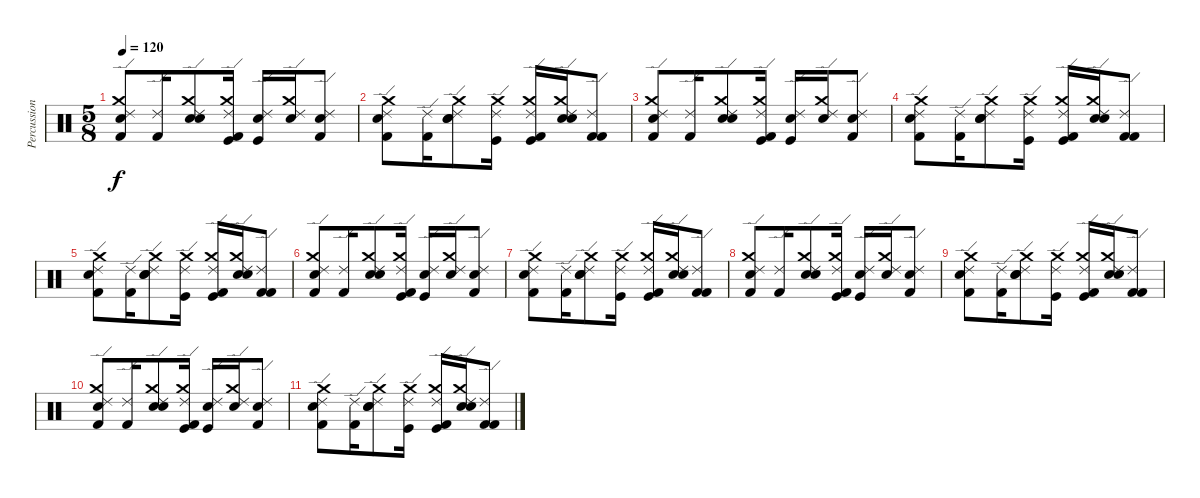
\track ("Percussion" "Percussion") {instrument percussion}
\staff {score}
\articulation defaults
\ts (5 8)
\tempo 120
\clef neutral
\ks c
("Electric Snare (hit)" "Kick (hit) 2" "Crash medium (hit)" "Ride (edge) 2").8{dy f} ("Kick (hit) 2" "Ride (edge) 2").16 ("Electric Snare (hit)" "Crash medium (hit)" "Electric Snare (hit)" "Ride (edge) 2").8 ("Crash medium (hit)" "Kick (hit) 2" "Kick (hit)" "Ride (edge) 2").16 ("Electric Snare (hit)" "Kick (hit)" "Ride (edge) 2").16 ("Crash medium (hit)" "Electric Snare (hit)" "Ride (edge) 2").16 ("Electric Snare (hit)" "Kick (hit) 2" "Ride (edge) 2").8 |
("Electric Snare (hit)" "Kick (hit) 2" "Crash medium (hit)" "Ride (edge) 2").8 ("Kick (hit) 2" "Ride (edge) 2").16 ("Electric Snare (hit)" "Crash medium (hit)" "Electric Snare (hit)" "Ride (edge) 2").8 ("Crash medium (hit)" "Kick (hit)" "Ride (edge) 2").16 ("Crash medium (hit)" "Kick (hit) 2" "Kick (hit)" "Ride (edge) 2").16 ("Electric Snare (hit)" "Crash medium (hit)" "Electric Snare (hit)" "Ride (edge) 2").16 ("Kick (hit) 2" "Kick (hit) 2" "Ride (edge) 2").8 |
("Electric Snare (hit)" "Kick (hit) 2" "Crash medium (hit)" "Ride (edge) 2").8 ("Kick (hit) 2" "Ride (edge) 2").16 ("Electric Snare (hit)" "Crash medium (hit)" "Electric Snare (hit)" "Ride (edge) 2").8 ("Crash medium (hit)" "Kick (hit) 2" "Kick (hit)" "Ride (edge) 2").16 ("Electric Snare (hit)" "Kick (hit)" "Ride (edge) 2").16 ("Crash medium (hit)" "Electric Snare (hit)" "Ride (edge) 2").16 ("Electric Snare (hit)" "Kick (hit) 2" "Ride (edge) 2").8 |
("Electric Snare (hit)" "Kick (hit) 2" "Crash medium (hit)" "Ride (edge) 2").8 ("Kick (hit) 2" "Ride (edge) 2").16 ("Electric Snare (hit)" "Crash medium (hit)" "Electric Snare (hit)" "Ride (edge) 2").8 ("Crash medium (hit)" "Kick (hit)" "Ride (edge) 2").16 ("Crash medium (hit)" "Kick (hit) 2" "Kick (hit)" "Ride (edge) 2").16 ("Electric Snare (hit)" "Crash medium (hit)" "Electric Snare (hit)" "Ride (edge) 2").16 ("Kick (hit) 2" "Kick (hit) 2" "Ride (edge) 2").8 |
("Electric Snare (hit)" "Kick (hit) 2" "Crash medium (hit)" "Ride (edge) 2").8 ("Kick (hit) 2" "Ride (edge) 2").16 ("Electric Snare (hit)" "Crash medium (hit)" "Electric Snare (hit)" "Ride (edge) 2").8 ("Crash medium (hit)" "Kick (hit)" "Ride (edge) 2").16 ("Crash medium (hit)" "Kick (hit) 2" "Kick (hit)" "Ride (edge) 2").16 ("Electric Snare (hit)" "Crash medium (hit)" "Electric Snare (hit)" "Ride (edge) 2").16 ("Kick (hit) 2" "Kick (hit) 2" "Ride (edge) 2").8 |
("Electric Snare (hit)" "Kick (hit) 2" "Crash medium (hit)" "Ride (edge) 2").8 ("Kick (hit) 2" "Ride (edge) 2").16 ("Electric Snare (hit)" "Crash medium (hit)" "Electric Snare (hit)" "Ride (edge) 2").8 ("Crash medium (hit)" "Kick (hit) 2" "Kick (hit)" "Ride (edge) 2").16 ("Electric Snare (hit)" "Kick (hit)" "Ride (edge) 2").16 ("Crash medium (hit)" "Electric Snare (hit)" "Ride (edge) 2").16 ("Electric Snare (hit)" "Kick (hit) 2" "Ride (edge) 2").8 |
("Electric Snare (hit)" "Kick (hit) 2" "Crash medium (hit)" "Ride (edge) 2").8 ("Kick (hit) 2" "Ride (edge) 2").16 ("Electric Snare (hit)" "Crash medium (hit)" "Electric Snare (hit)" "Ride (edge) 2").8 ("Crash medium (hit)" "Kick (hit)" "Ride (edge) 2").16 ("Crash medium (hit)" "Kick (hit) 2" "Kick (hit)" "Ride (edge) 2").16 ("Electric Snare (hit)" "Crash medium (hit)" "Electric Snare (hit)" "Ride (edge) 2").16 ("Kick (hit) 2" "Kick (hit) 2" "Ride (edge) 2").8 |
("Electric Snare (hit)" "Kick (hit) 2" "Crash medium (hit)" "Ride (edge) 2").8 ("Kick (hit) 2" "Ride (edge) 2").16 ("Electric Snare (hit)" "Crash medium (hit)" "Electric Snare (hit)" "Ride (edge) 2").8 ("Crash medium (hit)" "Kick (hit) 2" "Kick (hit)" "Ride (edge) 2").16 ("Electric Snare (hit)" "Kick (hit)" "Ride (edge) 2").16 ("Crash medium (hit)" "Electric Snare (hit)" "Ride (edge) 2").16 ("Electric Snare (hit)" "Kick (hit) 2" "Ride (edge) 2").8 |
("Electric Snare (hit)" "Kick (hit) 2" "Crash medium (hit)" "Ride (edge) 2").8 ("Kick (hit) 2" "Ride (edge) 2").16 ("Electric Snare (hit)" "Crash medium (hit)" "Electric Snare (hit)" "Ride (edge) 2").8 ("Crash medium (hit)" "Kick (hit)" "Ride (edge) 2").16 ("Crash medium (hit)" "Kick (hit) 2" "Kick (hit)" "Ride (edge) 2").16 ("Electric Snare (hit)" "Crash medium (hit)" "Electric Snare (hit)" "Ride (edge) 2").16 ("Kick (hit) 2" "Kick (hit) 2" "Ride (edge) 2").8 |
("Electric Snare (hit)" "Kick (hit) 2" "Crash medium (hit)" "Ride (edge) 2").8 ("Kick (hit) 2" "Ride (edge) 2").16 ("Electric Snare (hit)" "Crash medium (hit)" "Electric Snare (hit)" "Ride (edge) 2").8 ("Crash medium (hit)" "Kick (hit) 2" "Kick (hit)" "Ride (edge) 2").16 ("Electric Snare (hit)" "Kick (hit)" "Ride (edge) 2").16 ("Crash medium (hit)" "Electric Snare (hit)" "Ride (edge) 2").16 ("Electric Snare (hit)" "Kick (hit) 2" "Ride (edge) 2").8 |
("Electric Snare (hit)" "Kick (hit) 2" "Crash medium (hit)" "Ride (edge) 2").8 ("Kick (hit) 2" "Ride (edge) 2").16 ("Electric Snare (hit)" "Crash medium (hit)" "Electric Snare (hit)" "Ride (edge) 2").8 ("Crash medium (hit)" "Kick (hit)" "Ride (edge) 2").16 ("Crash medium (hit)" "Kick (hit) 2" "Kick (hit)" "Ride (edge) 2").16 ("Electric Snare (hit)" "Crash medium (hit)" "Electric Snare (hit)" "Ride (edge) 2").16 ("Kick (hit) 2" "Kick (hit) 2" "Ride (edge) 2").8
